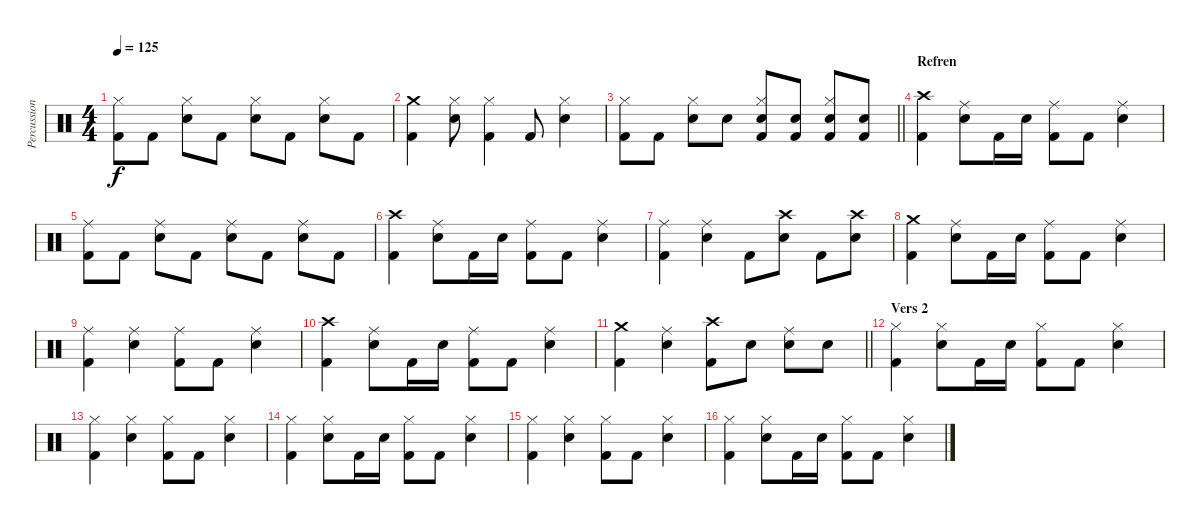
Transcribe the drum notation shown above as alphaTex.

\track ("Percussion" "Percussion") {instrument percussion}
\staff {score}
\articulation defaults
\ts (4 4)
\tempo 125
\clef neutral
\ks c
("Kick (hit) 2" "Hi-Hat (closed)").8{dy f} "Kick (hit) 2".8 ("Electric Snare (hit)" "Hi-Hat (closed)").8 "Kick (hit) 2".8 ("Electric Snare (hit)" "Hi-Hat (closed)").8 "Kick (hit) 2".8 ("Electric Snare (hit)" "Hi-Hat (closed)").8 "Kick (hit) 2".8 |
("Kick (hit) 2" "Crash medium (hit)").4 ("Electric Snare (hit)" "Hi-Hat (closed)").8 ("Kick (hit) 2" "Hi-Hat (closed)").4 "Kick (hit) 2".8 ("Electric Snare (hit)" "Hi-Hat (closed)").4 |
\barLineRight lightlight
("Kick (hit) 2" "Hi-Hat (closed)").8 "Kick (hit) 2".8 ("Electric Snare (hit)" "Hi-Hat (closed)").8 "Electric Snare (hit)".8 ("Electric Snare (hit)" "Kick (hit) 2" "Hi-Hat (closed)").8 ("Electric Snare (hit)" "Kick (hit) 2").8 ("Electric Snare (hit)" "Kick (hit) 2" "Hi-Hat (closed)").8 ("Electric Snare (hit)" "Kick (hit) 2").8 |
\section ("" "Refren")
("Kick (hit) 2" "Crash high (hit)").4 ("Electric Snare (hit)" "Ride (middle)").8 "Kick (hit) 2".16 "Electric Snare (hit)".16 ("Kick (hit) 2" "Ride (middle)").8 "Kick (hit) 2".8 ("Electric Snare (hit)" "Ride (middle)").4 |
("Kick (hit) 2" "Ride (middle)").8 "Kick (hit) 2".8 ("Electric Snare (hit)" "Ride (middle)").8 "Kick (hit) 2".8 ("Electric Snare (hit)" "Ride (middle)").8 "Kick (hit) 2".8 ("Electric Snare (hit)" "Ride (middle)").8 "Kick (hit) 2".8 |
("Kick (hit) 2" "Crash high (hit)").4 ("Electric Snare (hit)" "Ride (middle)").8 "Kick (hit) 2".16 "Electric Snare (hit)".16 ("Kick (hit) 2" "Ride (middle)").8 "Kick (hit) 2".8 ("Electric Snare (hit)" "Ride (middle)").4 |
("Kick (hit) 2" "Ride (middle)").4 ("Electric Snare (hit)" "Ride (middle)").4 "Kick (hit) 2".8 ("Electric Snare (hit)" "Crash high (hit)").8 "Kick (hit) 2".8 ("Electric Snare (hit)" "Crash high (hit)").8 |
("Kick (hit) 2" "Crash medium (hit)").4 ("Electric Snare (hit)" "Ride (middle)").8 "Kick (hit) 2".16 "Electric Snare (hit)".16 ("Kick (hit) 2" "Ride (middle)").8 "Kick (hit) 2".8 ("Electric Snare (hit)" "Ride (middle)").4 |
("Kick (hit) 2" "Ride (middle)").4 ("Electric Snare (hit)" "Ride (middle)").4 ("Kick (hit) 2" "Ride (middle)").8 "Kick (hit) 2".8 ("Electric Snare (hit)" "Ride (middle)").4 |
("Kick (hit) 2" "Crash high (hit)").4 ("Electric Snare (hit)" "Ride (middle)").8 "Kick (hit) 2".16 "Electric Snare (hit)".16 ("Kick (hit) 2" "Ride (middle)").8 "Kick (hit) 2".8 ("Electric Snare (hit)" "Ride (middle)").4 |
\barLineRight lightlight
("Kick (hit) 2" "Crash medium (hit)").4 ("Electric Snare (hit)" "Ride (middle)").4 ("Kick (hit) 2" "Crash high (hit)").8 "Electric Snare (hit)".8 ("Electric Snare (hit)" "Ride (middle)").8 "Electric Snare (hit)".8 |
\section ("" "Vers 2")
("Kick (hit) 2" "Hi-Hat (closed)").4 ("Electric Snare (hit)" "Hi-Hat (closed)").8 "Kick (hit) 2".16 "Electric Snare (hit)".16 ("Kick (hit) 2" "Hi-Hat (closed)").8 "Kick (hit) 2".8 ("Electric Snare (hit)" "Hi-Hat (closed)").4 |
("Kick (hit) 2" "Hi-Hat (closed)").4 ("Electric Snare (hit)" "Hi-Hat (closed)").4 ("Kick (hit) 2" "Hi-Hat (closed)").8 "Kick (hit) 2".8 ("Electric Snare (hit)" "Hi-Hat (closed)").4 |
("Kick (hit) 2" "Hi-Hat (closed)").4 ("Electric Snare (hit)" "Hi-Hat (closed)").8 "Kick (hit) 2".16 "Electric Snare (hit)".16 ("Kick (hit) 2" "Hi-Hat (closed)").8 "Kick (hit) 2".8 ("Electric Snare (hit)" "Hi-Hat (closed)").4 |
("Kick (hit) 2" "Hi-Hat (closed)").4 ("Electric Snare (hit)" "Hi-Hat (closed)").4 ("Kick (hit) 2" "Hi-Hat (closed)").8 "Kick (hit) 2".8 ("Electric Snare (hit)" "Hi-Hat (closed)").4 |
("Kick (hit) 2" "Hi-Hat (closed)").4 ("Electric Snare (hit)" "Hi-Hat (closed)").8 "Kick (hit) 2".16 "Electric Snare (hit)".16 ("Kick (hit) 2" "Hi-Hat (closed)").8 "Kick (hit) 2".8 ("Electric Snare (hit)" "Hi-Hat (closed)").4
